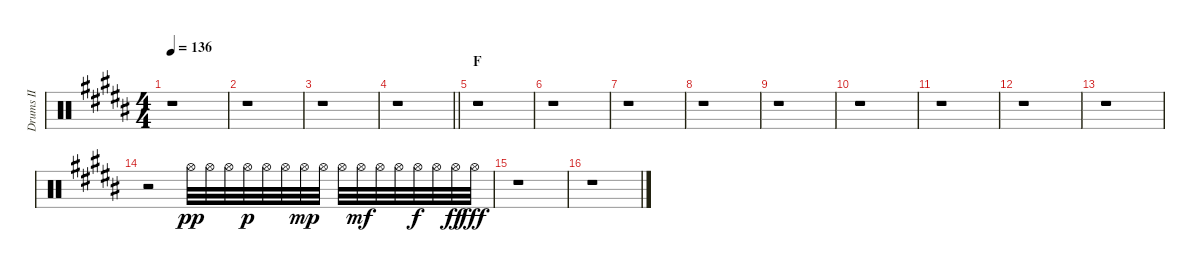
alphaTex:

\track ("Drums II" "Drums II") {instrument percussion}
\staff {score}
\articulation defaults
\ts (4 4)
\tempo 136
\clef neutral
\ks b
r.1{dy pp} |
r.1 |
r.1 |
\barLineRight lightlight
r.1 |
\section ("" "F")
r.1 |
r.1 |
r.1 |
r.1 |
r.1 |
r.1 |
r.1 |
r.1 |
r.1 |
r.2 "Hi-Hat (open)".32 "Hi-Hat (open)".32 "Hi-Hat (open)".32 "Hi-Hat (open)".32{dy p} "Hi-Hat (open)".32 "Hi-Hat (open)".32 "Hi-Hat (open)".32{dy mp} "Hi-Hat (open)".32 "Hi-Hat (open)".32 "Hi-Hat (open)".32{dy mf} "Hi-Hat (open)".32 "Hi-Hat (open)".32 "Hi-Hat (open)".32{dy f} "Hi-Hat (open)".32 "Hi-Hat (open)".32{dy ff} "Hi-Hat (open)".32{dy fff} |
r.1 |
r.1
